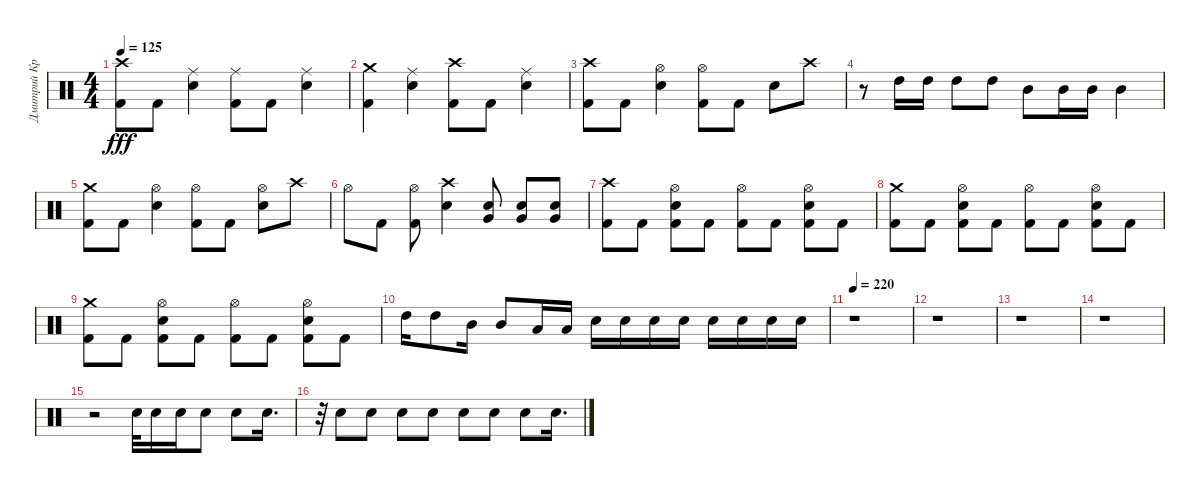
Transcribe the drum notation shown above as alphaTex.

\track ("Дмитрий Кривенков" "Дмитрий Кр") {instrument percussion}
\staff {score}
\articulation defaults
\ts (4 4)
\tempo 125
\clef neutral
\ks c
("Crash high (hit)" "Kick (hit) 2").8{dy fff} "Kick (hit) 2".8 ("Ride (middle)" "Electric Snare (hit)").4 ("Ride (middle)" "Kick (hit) 2").8 "Kick (hit) 2".8 ("Ride (middle)" "Electric Snare (hit)").4 |
("Kick (hit) 2" "Crash medium (hit)").4 ("Electric Snare (hit)" "Ride (middle)").4 ("Kick (hit) 2" "Crash high (hit)").8 "Kick (hit) 2".8 ("Electric Snare (hit)" "Ride (middle)").4 |
("Crash high (hit)" "Kick (hit) 2").8 "Kick (hit) 2".8 ("Hi-Hat (open)" "Electric Snare (hit)").4 ("Hi-Hat (open)" "Kick (hit) 2").8 "Kick (hit) 2".8 "Electric Snare (hit)".8 "Crash high (hit)".8 |
r.8 "High Tom (hit)".16 "High Tom (hit)".16 "High Tom (hit)".8 "High Tom (hit)".8 "Mid Tom (hit)".8 "Mid Tom (hit)".16 "Mid Tom (hit)".16 "Mid Tom (hit)".4 |
("Crash medium (hit)" "Kick (hit) 2").8 "Kick (hit) 2".8 ("Hi-Hat (open)" "Electric Snare (hit)").4 ("Hi-Hat (open)" "Kick (hit) 2").8 "Kick (hit) 2".8 ("Hi-Hat (open)" "Electric Snare (hit)").8 "Crash high (hit)".8 |
"Hi-Hat (open)".8 "Kick (hit) 2".8 ("Hi-Hat (open)" "Kick (hit) 2").8 ("Crash high (hit)" "Electric Snare (hit)").4 ("Very Low Tom (hit)" "Electric Snare (hit)").8 ("Very Low Tom (hit)" "Electric Snare (hit)").8 ("Very Low Tom (hit)" "Electric Snare (hit)").8 |
("Crash high (hit)" "Kick (hit) 2").8 "Kick (hit) 2".8 ("Hi-Hat (open)" "Electric Snare (hit)" "Kick (hit) 2").8 "Kick (hit) 2".8 ("Hi-Hat (open)" "Kick (hit) 2").8 "Kick (hit) 2".8 ("Hi-Hat (open)" "Electric Snare (hit)" "Kick (hit) 2").8 "Kick (hit) 2".8 |
("Crash medium (hit)" "Kick (hit) 2").8 "Kick (hit) 2".8 ("Hi-Hat (open)" "Electric Snare (hit)" "Kick (hit) 2").8 "Kick (hit) 2".8 ("Hi-Hat (open)" "Kick (hit) 2").8 "Kick (hit) 2".8 ("Hi-Hat (open)" "Electric Snare (hit)" "Kick (hit) 2").8 "Kick (hit) 2".8 |
("Crash medium (hit)" "Kick (hit) 2").8 "Kick (hit) 2".8 ("Hi-Hat (open)" "Electric Snare (hit)" "Kick (hit) 2").8 "Kick (hit) 2".8 ("Hi-Hat (open)" "Kick (hit) 2").8 "Kick (hit) 2".8 ("Hi-Hat (open)" "Electric Snare (hit)" "Kick (hit) 2").8 "Kick (hit) 2".8 |
"High Tom (hit)".16 "High Tom (hit)".8 "Mid Tom (hit)".16 "Mid Tom (hit)".8 "Low Tom (hit)".16 "Low Tom (hit)".16 "Electric Snare (hit)".16 "Electric Snare (hit)".16 "Electric Snare (hit)".16 "Electric Snare (hit)".16 "Electric Snare (hit)".16 "Electric Snare (hit)".16 "Electric Snare (hit)".16 "Electric Snare (hit)".16 |
\tempo 220
r.1 |
r.1 |
r.1 |
r.1 |
r.2 "Electric Snare (hit)".32 "Electric Snare (hit)".16 "Electric Snare (hit)".16 "Electric Snare (hit)".8 "Electric Snare (hit)".8 "Electric Snare (hit)".16{d} |
r.32 "Electric Snare (hit)".8 "Electric Snare (hit)".8 "Electric Snare (hit)".8 "Electric Snare (hit)".8 "Electric Snare (hit)".8 "Electric Snare (hit)".8 "Electric Snare (hit)".8 "Electric Snare (hit)".16{d}
